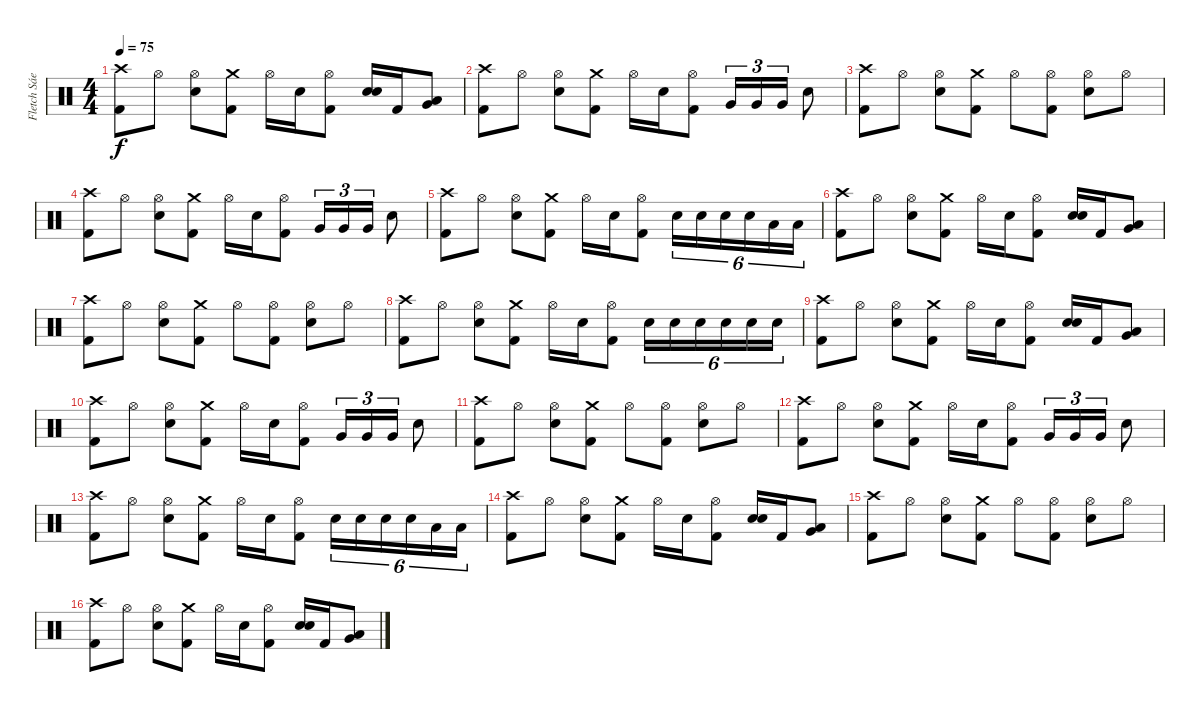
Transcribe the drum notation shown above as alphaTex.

\track ("Fletch Sáenz" "Fletch Sáe") {instrument percussion}
\staff {score}
\articulation defaults
\ts (4 4)
\tempo 75
\clef neutral
\ks c
("Crash high (hit)" "Kick (hit) 2").8{dy f} "Hi-Hat (open)".8 ("Hi-Hat (open)" "Electric Snare (hit)").8 ("Crash medium (hit)" "Kick (hit) 2").8 "Hi-Hat (open)".16 "Electric Snare (hit)".16 ("Hi-Hat (open)" "Kick (hit) 2").8 ("Electric Snare (hit)" "Electric Snare (hit)").16 "Kick (hit) 2".16 ("Low Tom (hit)" "Very Low Tom (hit)").8 |
("Crash high (hit)" "Kick (hit) 2").8 "Hi-Hat (open)".8 ("Hi-Hat (open)" "Electric Snare (hit)").8 ("Crash medium (hit)" "Kick (hit) 2").8 "Hi-Hat (open)".16 "Electric Snare (hit)".16 ("Hi-Hat (open)" "Kick (hit) 2").8 "Very Low Tom (hit)".16{tu (3 2)} "Very Low Tom (hit)".16{tu (3 2)} "Very Low Tom (hit)".16{tu (3 2)} "Electric Snare (hit)".8 |
("Crash high (hit)" "Kick (hit) 2").8 "Hi-Hat (open)".8 ("Hi-Hat (open)" "Electric Snare (hit)").8 ("Crash medium (hit)" "Kick (hit) 2").8 "Hi-Hat (open)".8 ("Hi-Hat (open)" "Kick (hit) 2").8 ("Hi-Hat (open)" "Electric Snare (hit)").8 "Hi-Hat (open)".8 |
("Crash high (hit)" "Kick (hit) 2").8 "Hi-Hat (open)".8 ("Hi-Hat (open)" "Electric Snare (hit)").8 ("Crash medium (hit)" "Kick (hit) 2").8 "Hi-Hat (open)".16 "Electric Snare (hit)".16 ("Hi-Hat (open)" "Kick (hit) 2").8 "Very Low Tom (hit)".16{tu (3 2)} "Very Low Tom (hit)".16{tu (3 2)} "Very Low Tom (hit)".16{tu (3 2)} "Electric Snare (hit)".8 |
("Crash high (hit)" "Kick (hit) 2").8 "Hi-Hat (open)".8 ("Hi-Hat (open)" "Electric Snare (hit)").8 ("Crash medium (hit)" "Kick (hit) 2").8 "Hi-Hat (open)".16 "Electric Snare (hit)".16 ("Hi-Hat (open)" "Kick (hit) 2").8 "Electric Snare (hit)".16{tu (6 4)} "Electric Snare (hit)".16{tu (6 4)} "Electric Snare (hit)".16{tu (6 4)} "Electric Snare (hit)".16{tu (6 4)} "Low Tom (hit)".16{tu (6 4)} "Low Tom (hit)".16{tu (6 4)} |
("Crash high (hit)" "Kick (hit) 2").8 "Hi-Hat (open)".8 ("Hi-Hat (open)" "Electric Snare (hit)").8 ("Crash medium (hit)" "Kick (hit) 2").8 "Hi-Hat (open)".16 "Electric Snare (hit)".16 ("Hi-Hat (open)" "Kick (hit) 2").8 ("Electric Snare (hit)" "Electric Snare (hit)").16 "Kick (hit) 2".16 ("Low Tom (hit)" "Very Low Tom (hit)").8 |
("Crash high (hit)" "Kick (hit) 2").8 "Hi-Hat (open)".8 ("Hi-Hat (open)" "Electric Snare (hit)").8 ("Crash medium (hit)" "Kick (hit) 2").8 "Hi-Hat (open)".8 ("Hi-Hat (open)" "Kick (hit) 2").8 ("Hi-Hat (open)" "Electric Snare (hit)").8 "Hi-Hat (open)".8 |
("Crash high (hit)" "Kick (hit) 2").8 "Hi-Hat (open)".8 ("Hi-Hat (open)" "Electric Snare (hit)").8 ("Crash medium (hit)" "Kick (hit) 2").8 "Hi-Hat (open)".16 "Electric Snare (hit)".16 ("Hi-Hat (open)" "Kick (hit) 2").8 "Electric Snare (hit)".16{tu (6 4)} "Electric Snare (hit)".16{tu (6 4)} "Electric Snare (hit)".16{tu (6 4)} "Electric Snare (hit)".16{tu (6 4)} "Electric Snare (hit)".16{tu (6 4)} "Electric Snare (hit)".16{tu (6 4)} |
("Crash high (hit)" "Kick (hit) 2").8 "Hi-Hat (open)".8 ("Hi-Hat (open)" "Electric Snare (hit)").8 ("Crash medium (hit)" "Kick (hit) 2").8 "Hi-Hat (open)".16 "Electric Snare (hit)".16 ("Hi-Hat (open)" "Kick (hit) 2").8 ("Electric Snare (hit)" "Electric Snare (hit)").16 "Kick (hit) 2".16 ("Low Tom (hit)" "Very Low Tom (hit)").8 |
("Crash high (hit)" "Kick (hit) 2").8 "Hi-Hat (open)".8 ("Hi-Hat (open)" "Electric Snare (hit)").8 ("Crash medium (hit)" "Kick (hit) 2").8 "Hi-Hat (open)".16 "Electric Snare (hit)".16 ("Hi-Hat (open)" "Kick (hit) 2").8 "Very Low Tom (hit)".16{tu (3 2)} "Very Low Tom (hit)".16{tu (3 2)} "Very Low Tom (hit)".16{tu (3 2)} "Electric Snare (hit)".8 |
("Crash high (hit)" "Kick (hit) 2").8 "Hi-Hat (open)".8 ("Hi-Hat (open)" "Electric Snare (hit)").8 ("Crash medium (hit)" "Kick (hit) 2").8 "Hi-Hat (open)".8 ("Hi-Hat (open)" "Kick (hit) 2").8 ("Hi-Hat (open)" "Electric Snare (hit)").8 "Hi-Hat (open)".8 |
("Crash high (hit)" "Kick (hit) 2").8 "Hi-Hat (open)".8 ("Hi-Hat (open)" "Electric Snare (hit)").8 ("Crash medium (hit)" "Kick (hit) 2").8 "Hi-Hat (open)".16 "Electric Snare (hit)".16 ("Hi-Hat (open)" "Kick (hit) 2").8 "Very Low Tom (hit)".16{tu (3 2)} "Very Low Tom (hit)".16{tu (3 2)} "Very Low Tom (hit)".16{tu (3 2)} "Electric Snare (hit)".8 |
("Crash high (hit)" "Kick (hit) 2").8 "Hi-Hat (open)".8 ("Hi-Hat (open)" "Electric Snare (hit)").8 ("Crash medium (hit)" "Kick (hit) 2").8 "Hi-Hat (open)".16 "Electric Snare (hit)".16 ("Hi-Hat (open)" "Kick (hit) 2").8 "Electric Snare (hit)".16{tu (6 4)} "Electric Snare (hit)".16{tu (6 4)} "Electric Snare (hit)".16{tu (6 4)} "Electric Snare (hit)".16{tu (6 4)} "Low Tom (hit)".16{tu (6 4)} "Low Tom (hit)".16{tu (6 4)} |
("Crash high (hit)" "Kick (hit) 2").8 "Hi-Hat (open)".8 ("Hi-Hat (open)" "Electric Snare (hit)").8 ("Crash medium (hit)" "Kick (hit) 2").8 "Hi-Hat (open)".16 "Electric Snare (hit)".16 ("Hi-Hat (open)" "Kick (hit) 2").8 ("Electric Snare (hit)" "Electric Snare (hit)").16 "Kick (hit) 2".16 ("Low Tom (hit)" "Very Low Tom (hit)").8 |
("Crash high (hit)" "Kick (hit) 2").8 "Hi-Hat (open)".8 ("Hi-Hat (open)" "Electric Snare (hit)").8 ("Crash medium (hit)" "Kick (hit) 2").8 "Hi-Hat (open)".8 ("Hi-Hat (open)" "Kick (hit) 2").8 ("Hi-Hat (open)" "Electric Snare (hit)").8 "Hi-Hat (open)".8 |
("Crash high (hit)" "Kick (hit) 2").8 "Hi-Hat (open)".8 ("Hi-Hat (open)" "Electric Snare (hit)").8 ("Crash medium (hit)" "Kick (hit) 2").8 "Hi-Hat (open)".16 "Electric Snare (hit)".16 ("Hi-Hat (open)" "Kick (hit) 2").8 ("Electric Snare (hit)" "Electric Snare (hit)").16 "Kick (hit) 2".16 ("Low Tom (hit)" "Very Low Tom (hit)").8
